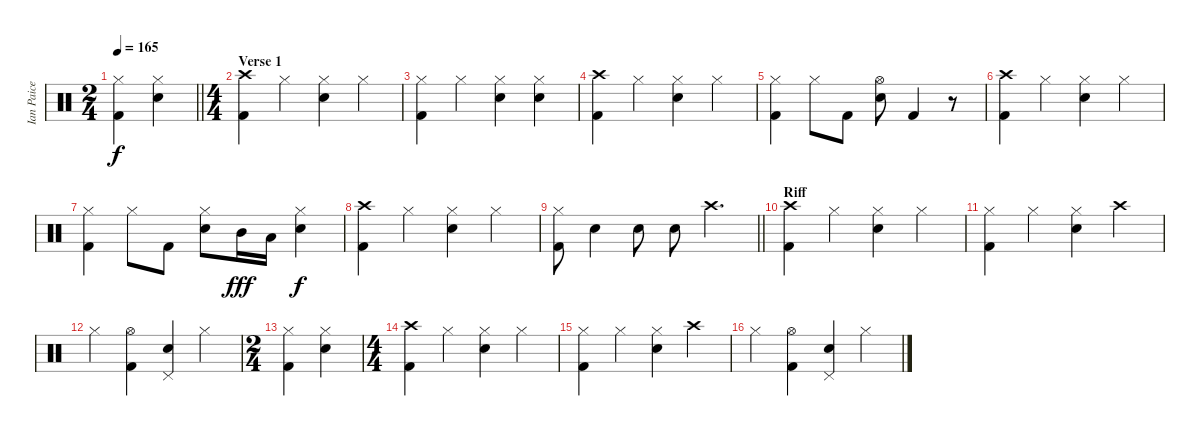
\track ("Ian Paice" "Ian Paice") {instrument percussion}
\staff {score}
\articulation defaults
\ts (2 4)
\tempo 165
\clef neutral
\barLineRight lightlight
\ks c
("Hi-Hat (closed)" "Kick (hit) 2").4{dy f} ("Hi-Hat (closed)" "Snare (hit) 2").4 |
\ts (4 4)
\section ("" "Verse 1")
("Crash high (hit)" "Kick (hit) 2").4 "Hi-Hat (closed)".4 ("Hi-Hat (closed)" "Snare (hit) 2").4 "Hi-Hat (closed)".4 |
("Hi-Hat (closed)" "Kick (hit) 2").4 "Hi-Hat (closed)".4 ("Hi-Hat (closed)" "Snare (hit) 2").4 ("Hi-Hat (closed)" "Snare (hit) 2").4 |
("Crash high (hit)" "Kick (hit) 2").4 "Hi-Hat (closed)".4 ("Hi-Hat (closed)" "Snare (hit) 2").4 "Hi-Hat (closed)".4 |
("Hi-Hat (closed)" "Kick (hit) 2").4 "Hi-Hat (closed)".8 "Kick (hit) 2".8 ("Hi-Hat (open)" "Snare (hit) 2").8 "Kick (hit) 2".4 r.8 |
("Crash high (hit)" "Kick (hit) 2").4 "Hi-Hat (closed)".4 ("Hi-Hat (closed)" "Snare (hit) 2").4 "Hi-Hat (closed)".4 |
("Hi-Hat (closed)" "Kick (hit) 2").4 "Hi-Hat (closed)".8 "Kick (hit) 2".8 ("Hi-Hat (closed)" "Snare (hit) 2").8 "Mid Tom (hit)".16{dy fff} "Low Tom (hit)".16 ("Hi-Hat (closed)" "Snare (hit) 2").4{dy f} |
("Crash high (hit)" "Kick (hit) 2").4 "Hi-Hat (closed)".4 ("Hi-Hat (closed)" "Snare (hit) 2").4 "Hi-Hat (closed)".4 |
\barLineRight lightlight
("Hi-Hat (closed)" "Kick (hit) 2").8 "Snare (hit) 2".4 "Snare (hit) 2".8 "Snare (hit) 2".8 "Crash high (hit)".4{d} |
\section ("" "Riff")
("Crash high (hit)" "Kick (hit) 2").4 "Hi-Hat (closed)".4 ("Hi-Hat (closed)" "Snare (hit) 2").4 "Hi-Hat (closed)".4 |
("Hi-Hat (closed)" "Kick (hit) 2").4 "Hi-Hat (closed)".4 ("Hi-Hat (closed)" "Snare (hit) 2").4 "Crash high (hit)".4 |
"Hi-Hat (closed)".4 ("Hi-Hat (open)" "Kick (hit) 2").4 ("Pedal Hi-Hat (hit)" "Snare (hit) 2").4 "Hi-Hat (closed)".4 |
\ts (2 4)
("Hi-Hat (closed)" "Kick (hit) 2").4 ("Hi-Hat (closed)" "Snare (hit) 2").4 |
\ts (4 4)
("Crash high (hit)" "Kick (hit) 2").4 "Hi-Hat (closed)".4 ("Hi-Hat (closed)" "Snare (hit) 2").4 "Hi-Hat (closed)".4 |
("Hi-Hat (closed)" "Kick (hit) 2").4 "Hi-Hat (closed)".4 ("Hi-Hat (closed)" "Snare (hit) 2").4 "Crash high (hit)".4 |
"Hi-Hat (closed)".4 ("Hi-Hat (open)" "Kick (hit) 2").4 ("Pedal Hi-Hat (hit)" "Snare (hit) 2").4 "Hi-Hat (closed)".4
